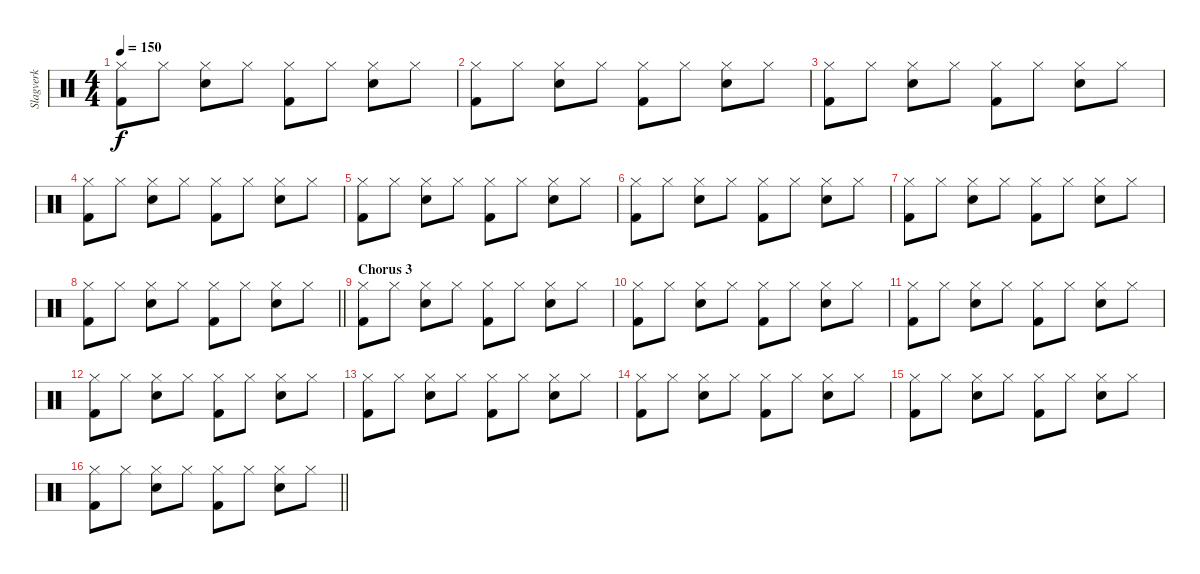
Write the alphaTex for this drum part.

\track ("Slagverk" "Slagverk") {instrument percussion}
\staff {score}
\articulation defaults
\ts (4 4)
\tempo 150
\clef neutral
\ks c
("Kick (hit) 2" "Hi-Hat (closed)").8{dy f} "Hi-Hat (closed)".8 ("Snare (hit) 2" "Hi-Hat (closed)").8 "Hi-Hat (closed)".8 ("Kick (hit) 2" "Hi-Hat (closed)").8 "Hi-Hat (closed)".8 ("Snare (hit) 2" "Hi-Hat (closed)").8 "Hi-Hat (closed)".8 |
("Kick (hit) 2" "Hi-Hat (closed)").8 "Hi-Hat (closed)".8 ("Snare (hit) 2" "Hi-Hat (closed)").8 "Hi-Hat (closed)".8 ("Kick (hit) 2" "Hi-Hat (closed)").8 "Hi-Hat (closed)".8 ("Snare (hit) 2" "Hi-Hat (closed)").8 "Hi-Hat (closed)".8 |
("Kick (hit) 2" "Hi-Hat (closed)").8 "Hi-Hat (closed)".8 ("Snare (hit) 2" "Hi-Hat (closed)").8 "Hi-Hat (closed)".8 ("Kick (hit) 2" "Hi-Hat (closed)").8 "Hi-Hat (closed)".8 ("Snare (hit) 2" "Hi-Hat (closed)").8 "Hi-Hat (closed)".8 |
("Kick (hit) 2" "Hi-Hat (closed)").8 "Hi-Hat (closed)".8 ("Snare (hit) 2" "Hi-Hat (closed)").8 "Hi-Hat (closed)".8 ("Kick (hit) 2" "Hi-Hat (closed)").8 "Hi-Hat (closed)".8 ("Snare (hit) 2" "Hi-Hat (closed)").8 "Hi-Hat (closed)".8 |
("Kick (hit) 2" "Hi-Hat (closed)").8 "Hi-Hat (closed)".8 ("Snare (hit) 2" "Hi-Hat (closed)").8 "Hi-Hat (closed)".8 ("Kick (hit) 2" "Hi-Hat (closed)").8 "Hi-Hat (closed)".8 ("Snare (hit) 2" "Hi-Hat (closed)").8 "Hi-Hat (closed)".8 |
("Kick (hit) 2" "Hi-Hat (closed)").8 "Hi-Hat (closed)".8 ("Snare (hit) 2" "Hi-Hat (closed)").8 "Hi-Hat (closed)".8 ("Kick (hit) 2" "Hi-Hat (closed)").8 "Hi-Hat (closed)".8 ("Snare (hit) 2" "Hi-Hat (closed)").8 "Hi-Hat (closed)".8 |
("Kick (hit) 2" "Hi-Hat (closed)").8 "Hi-Hat (closed)".8 ("Snare (hit) 2" "Hi-Hat (closed)").8 "Hi-Hat (closed)".8 ("Kick (hit) 2" "Hi-Hat (closed)").8 "Hi-Hat (closed)".8 ("Snare (hit) 2" "Hi-Hat (closed)").8 "Hi-Hat (closed)".8 |
\barLineRight lightlight
("Kick (hit) 2" "Hi-Hat (closed)").8 "Hi-Hat (closed)".8 ("Snare (hit) 2" "Hi-Hat (closed)").8 "Hi-Hat (closed)".8 ("Kick (hit) 2" "Hi-Hat (closed)").8 "Hi-Hat (closed)".8 ("Snare (hit) 2" "Hi-Hat (closed)").8 "Hi-Hat (closed)".8 |
\section ("" "Chorus 3")
("Kick (hit) 2" "Hi-Hat (closed)").8 "Hi-Hat (closed)".8 ("Snare (hit) 2" "Hi-Hat (closed)").8 "Hi-Hat (closed)".8 ("Kick (hit) 2" "Hi-Hat (closed)").8 "Hi-Hat (closed)".8 ("Snare (hit) 2" "Hi-Hat (closed)").8 "Hi-Hat (closed)".8 |
("Kick (hit) 2" "Hi-Hat (closed)").8 "Hi-Hat (closed)".8 ("Snare (hit) 2" "Hi-Hat (closed)").8 "Hi-Hat (closed)".8 ("Kick (hit) 2" "Hi-Hat (closed)").8 "Hi-Hat (closed)".8 ("Snare (hit) 2" "Hi-Hat (closed)").8 "Hi-Hat (closed)".8 |
("Kick (hit) 2" "Hi-Hat (closed)").8 "Hi-Hat (closed)".8 ("Snare (hit) 2" "Hi-Hat (closed)").8 "Hi-Hat (closed)".8 ("Kick (hit) 2" "Hi-Hat (closed)").8 "Hi-Hat (closed)".8 ("Snare (hit) 2" "Hi-Hat (closed)").8 "Hi-Hat (closed)".8 |
("Kick (hit) 2" "Hi-Hat (closed)").8 "Hi-Hat (closed)".8 ("Snare (hit) 2" "Hi-Hat (closed)").8 "Hi-Hat (closed)".8 ("Kick (hit) 2" "Hi-Hat (closed)").8 "Hi-Hat (closed)".8 ("Snare (hit) 2" "Hi-Hat (closed)").8 "Hi-Hat (closed)".8 |
("Kick (hit) 2" "Hi-Hat (closed)").8 "Hi-Hat (closed)".8 ("Snare (hit) 2" "Hi-Hat (closed)").8 "Hi-Hat (closed)".8 ("Kick (hit) 2" "Hi-Hat (closed)").8 "Hi-Hat (closed)".8 ("Snare (hit) 2" "Hi-Hat (closed)").8 "Hi-Hat (closed)".8 |
("Kick (hit) 2" "Hi-Hat (closed)").8 "Hi-Hat (closed)".8 ("Snare (hit) 2" "Hi-Hat (closed)").8 "Hi-Hat (closed)".8 ("Kick (hit) 2" "Hi-Hat (closed)").8 "Hi-Hat (closed)".8 ("Snare (hit) 2" "Hi-Hat (closed)").8 "Hi-Hat (closed)".8 |
("Kick (hit) 2" "Hi-Hat (closed)").8 "Hi-Hat (closed)".8 ("Snare (hit) 2" "Hi-Hat (closed)").8 "Hi-Hat (closed)".8 ("Kick (hit) 2" "Hi-Hat (closed)").8 "Hi-Hat (closed)".8 ("Snare (hit) 2" "Hi-Hat (closed)").8 "Hi-Hat (closed)".8 |
\barLineRight lightlight
("Kick (hit) 2" "Hi-Hat (closed)").8 "Hi-Hat (closed)".8 ("Snare (hit) 2" "Hi-Hat (closed)").8 "Hi-Hat (closed)".8 ("Kick (hit) 2" "Hi-Hat (closed)").8 "Hi-Hat (closed)".8 ("Snare (hit) 2" "Hi-Hat (closed)").8 "Hi-Hat (closed)".8
